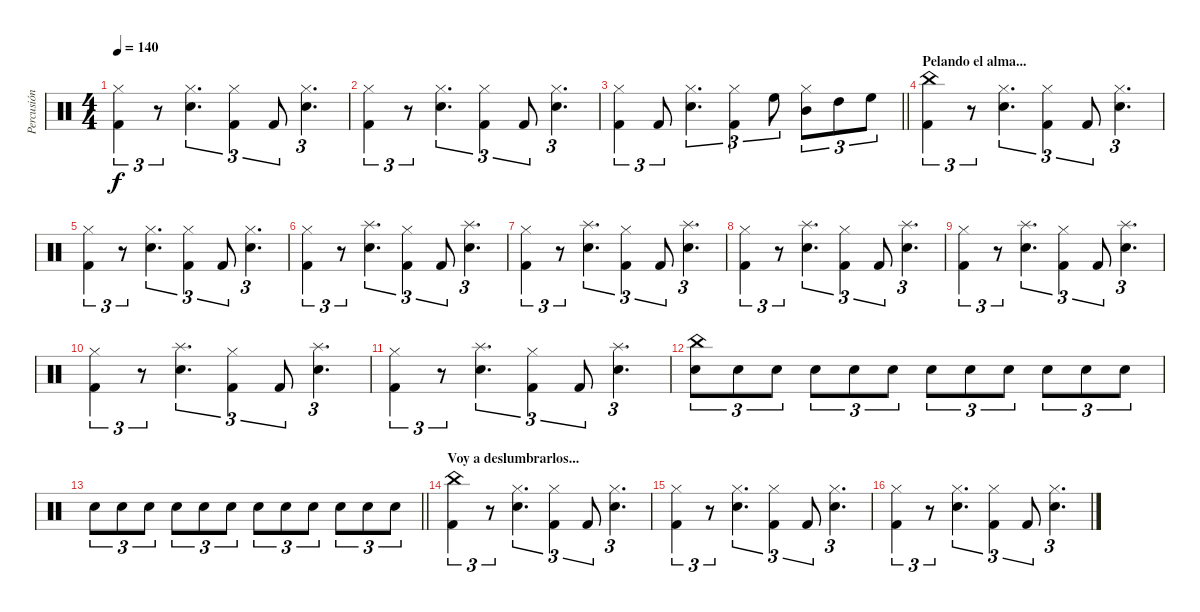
\track ("Percusión" "Percusión") {instrument percussion}
\staff {score}
\articulation defaults
\ts (4 4)
\tempo 140
\clef neutral
\ks c
("Hi-Hat (closed)" "Kick (hit) 2").4{tu (3 2) dy f} r.8{tu (3 2)} ("Hi-Hat (closed)" "Snare (hit) 2").4{d tu (3 2)} ("Hi-Hat (closed)" "Kick (hit) 2").4{tu (3 2)} "Kick (hit) 2".8{tu (3 2)} ("Hi-Hat (closed)" "Snare (hit) 2").4{d tu (3 2)} |
("Hi-Hat (closed)" "Kick (hit) 2").4{tu (3 2)} r.8{tu (3 2)} ("Hi-Hat (closed)" "Snare (hit) 2").4{d tu (3 2)} ("Hi-Hat (closed)" "Kick (hit) 2").4{tu (3 2)} "Kick (hit) 2".8{tu (3 2)} ("Hi-Hat (closed)" "Snare (hit) 2").4{d tu (3 2)} |
\barLineRight lightlight
("Hi-Hat (closed)" "Kick (hit) 2").4{tu (3 2)} "Kick (hit) 2".8{tu (3 2)} ("Hi-Hat (closed)" "Snare (hit) 2").4{d tu (3 2)} ("Hi-Hat (closed)" "Kick (hit) 2").4{tu (3 2)} "High Floor Tom (hit)".8{tu (3 2)} ("Hi-Hat (closed)" "Mid Tom (hit)").8{tu (3 2)} "High Tom (hit)".8{tu (3 2)} "High Floor Tom (hit)".8{tu (3 2)} |
\section ("" "Pelando el alma...")
("China (hit)" "Kick (hit) 2").4{tu (3 2)} r.8{tu (3 2)} ("Hi-Hat (closed)" "Snare (hit) 2").4{d tu (3 2)} ("Hi-Hat (closed)" "Kick (hit) 2").4{tu (3 2)} "Kick (hit) 2".8{tu (3 2)} ("Hi-Hat (closed)" "Snare (hit) 2").4{d tu (3 2)} |
("Hi-Hat (closed)" "Kick (hit) 2").4{tu (3 2)} r.8{tu (3 2)} ("Hi-Hat (closed)" "Snare (hit) 2").4{d tu (3 2)} ("Hi-Hat (closed)" "Kick (hit) 2").4{tu (3 2)} "Kick (hit) 2".8{tu (3 2)} ("Hi-Hat (closed)" "Snare (hit) 2").4{d tu (3 2)} |
("Hi-Hat (closed)" "Kick (hit) 2").4{tu (3 2)} r.8{tu (3 2)} ("Splash (hit)" "Snare (hit) 2").4{d tu (3 2)} ("Hi-Hat (closed)" "Kick (hit) 2").4{tu (3 2)} "Kick (hit) 2".8{tu (3 2)} ("Splash (hit)" "Snare (hit) 2").4{d tu (3 2)} |
("Hi-Hat (closed)" "Kick (hit) 2").4{tu (3 2)} r.8{tu (3 2)} ("Splash (hit)" "Snare (hit) 2").4{d tu (3 2)} ("Hi-Hat (closed)" "Kick (hit) 2").4{tu (3 2)} "Kick (hit) 2".8{tu (3 2)} ("Splash (hit)" "Snare (hit) 2").4{d tu (3 2)} |
("Hi-Hat (closed)" "Kick (hit) 2").4{tu (3 2)} r.8{tu (3 2)} ("Splash (hit)" "Snare (hit) 2").4{d tu (3 2)} ("Hi-Hat (closed)" "Kick (hit) 2").4{tu (3 2)} "Kick (hit) 2".8{tu (3 2)} ("Splash (hit)" "Snare (hit) 2").4{d tu (3 2)} |
("Hi-Hat (closed)" "Kick (hit) 2").4{tu (3 2)} r.8{tu (3 2)} ("Splash (hit)" "Snare (hit) 2").4{d tu (3 2)} ("Hi-Hat (closed)" "Kick (hit) 2").4{tu (3 2)} "Kick (hit) 2".8{tu (3 2)} ("Splash (hit)" "Snare (hit) 2").4{d tu (3 2)} |
("Hi-Hat (closed)" "Kick (hit) 2").4{tu (3 2)} r.8{tu (3 2)} ("Splash (hit)" "Snare (hit) 2").4{d tu (3 2)} ("Hi-Hat (closed)" "Kick (hit) 2").4{tu (3 2)} "Kick (hit) 2".8{tu (3 2)} ("Splash (hit)" "Snare (hit) 2").4{d tu (3 2)} |
("Hi-Hat (closed)" "Kick (hit) 2").4{tu (3 2)} r.8{tu (3 2)} ("Splash (hit)" "Snare (hit) 2").4{d tu (3 2)} ("Hi-Hat (closed)" "Kick (hit) 2").4{tu (3 2)} "Kick (hit) 2".8{tu (3 2)} ("Splash (hit)" "Snare (hit) 2").4{d tu (3 2)} |
("China (hit)" "Snare (hit) 2").8{tu (3 2)} "Snare (hit) 2".8{tu (3 2)} "Snare (hit) 2".8{tu (3 2)} "Snare (hit) 2".8{tu (3 2)} "Snare (hit) 2".8{tu (3 2)} "Snare (hit) 2".8{tu (3 2)} "Snare (hit) 2".8{tu (3 2)} "Snare (hit) 2".8{tu (3 2)} "Snare (hit) 2".8{tu (3 2)} "Snare (hit) 2".8{tu (3 2)} "Snare (hit) 2".8{tu (3 2)} "Snare (hit) 2".8{tu (3 2)} |
\barLineRight lightlight "Snare (hit) 2".8{tu (3 2)} "Snare (hit) 2".8{tu (3 2)} "Snare (hit) 2".8{tu (3 2)} "Snare (hit) 2".8{tu (3 2)} "Snare (hit) 2".8{tu (3 2)} "Snare (hit) 2".8{tu (3 2)} "Snare (hit) 2".8{tu (3 2)} "Snare (hit) 2".8{tu (3 2)} "Snare (hit) 2".8{tu (3 2)} "Snare (hit) 2".8{tu (3 2)} "Snare (hit) 2".8{tu (3 2)} "Snare (hit) 2".8{tu (3 2)}
|
\section ("" "Voy a deslumbrarlos...")
("China (hit)" "Kick (hit) 2").4{tu (3 2)} r.8{tu (3 2)} ("Hi-Hat (closed)" "Snare (hit) 2").4{d tu (3 2)} ("Hi-Hat (closed)" "Kick (hit) 2").4{tu (3 2)} "Kick (hit) 2".8{tu (3 2)} ("Hi-Hat (closed)" "Snare (hit) 2").4{d tu (3 2)} |
("Hi-Hat (closed)" "Kick (hit) 2").4{tu (3 2)} r.8{tu (3 2)} ("Hi-Hat (closed)" "Snare (hit) 2").4{d tu (3 2)} ("Hi-Hat (closed)" "Kick (hit) 2").4{tu (3 2)} "Kick (hit) 2".8{tu (3 2)} ("Hi-Hat (closed)" "Snare (hit) 2").4{d tu (3 2)} |
("Hi-Hat (closed)" "Kick (hit) 2").4{tu (3 2)} r.8{tu (3 2)} ("Hi-Hat (closed)" "Snare (hit) 2").4{d tu (3 2)} ("Hi-Hat (closed)" "Kick (hit) 2").4{tu (3 2)} "Kick (hit) 2".8{tu (3 2)} ("Hi-Hat (closed)" "Snare (hit) 2").4{d tu (3 2)}
